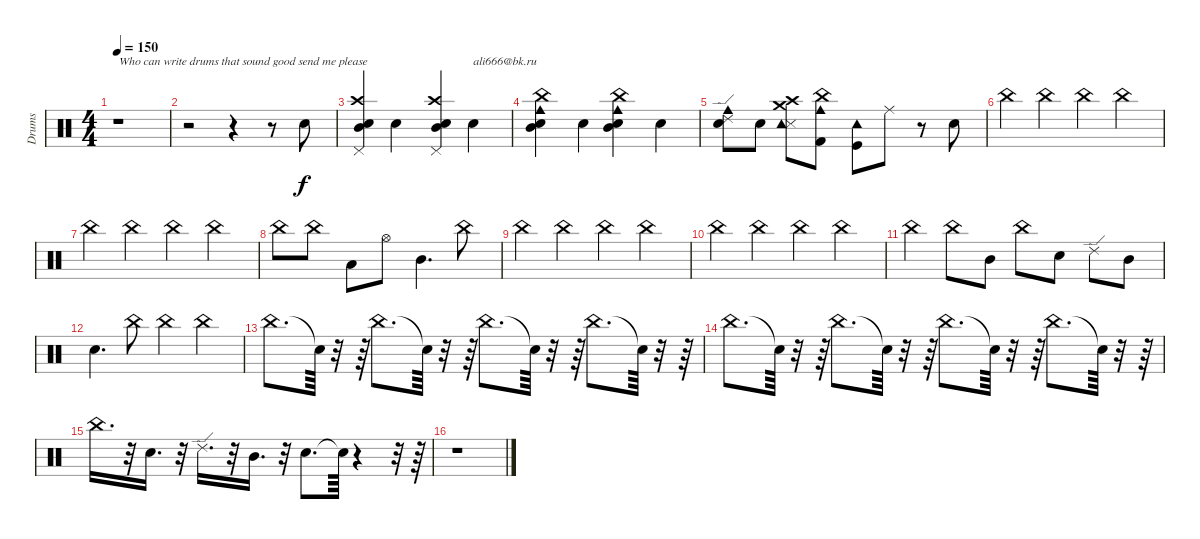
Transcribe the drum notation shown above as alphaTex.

\track ("Drums" "Drums") {instrument percussion}
\staff {score}
\articulation defaults
\ts (4 4)
\tempo 150
\tempo 100
\tempo 150
\clef neutral
\ks c
r.1{txt "Who can write drums that sound good send me please" dy f} |
r.2 r.4 r.8 "Electric Snare (hit)".8 |
("Electric Snare (hit)" "Crash high (hit)" "Mid Tom (hit)" "Pedal Hi-Hat (hit)").4 "Electric Snare (hit)".4 ("Electric Snare (hit)" "Crash high (hit)" "Mid Tom (hit)" "Pedal Hi-Hat (hit)").4 "Electric Snare (hit)".4{txt "ali666@bk.ru"} |
("Electric Snare (hit)" "Cowbell medium (hit)" "China (hit)" "Mid Tom (hit)").4 "Electric Snare (hit)".4 ("Electric Snare (hit)" "Cowbell medium (hit)" "China (hit)" "Mid Tom (hit)").4 "Electric Snare (hit)".4 |
("Electric Snare (hit)" "Cowbell medium (hit)" "Ride (edge) 2").8 "Electric Snare (hit)".8 ("Metronome (hit)" "Crash high (hit)" "Tambourine (hit)" "Crash medium (hit)").8 ("Kick (hit) 2" "China (hit)" "Cowbell medium (hit)").8 ("Kick (hit)" "Tambourine (hit)").8 "Ride (middle)".8 r.8 "Electric Snare (hit)".8 |
"China (hit)".4 "China (hit)".4 "China (hit)".4 "China (hit)".4 |
"China (hit)".4 "China (hit)".4 "China (hit)".4 "China (hit)".4 |
"China (hit)".8 "China (hit)".8 "Low Tom (hit)".8 "Hi-Hat (open)".8 "Mid Tom (hit)".4{d} "China (hit)".8 |
"China (hit)".4 "China (hit)".4 "China (hit)".4 "China (hit)".4 |
"China (hit)".4 "China (hit)".4 "China (hit)".4 "China (hit)".4 |
"China (hit)".4 "China (hit)".8 "Mid Tom (hit)".8 "China (hit)".8 "Electric Snare (hit)".8 "Ride (edge) 2".8 "Mid Tom (hit)".8 |
"Electric Snare (hit)".4{d} "China (hit)".8 "China (hit)".4 "China (hit)".4 |
"China (hit)".8{d} "Snare (hit)"{t}.64 r.32 r.64 "China (hit)".8{d} "Snare (hit)"{t}.64 r.32 r.64 "China (hit)".8{d} "Snare (hit)"{t}.64 r.32 r.64 "China (hit)".8{d} "Snare (hit)"{t}.64 r.32 r.64 |
"China (hit)".8{d} "Snare (hit)"{t}.64 r.32 r.64 "China (hit)".8{d} "Snare (hit)"{t}.64 r.32 r.64 "China (hit)".8{d} "Snare (hit)"{t}.64 r.32 r.64 "China (hit)".8{d} "Snare (hit)"{t}.64 r.32 r.64 |
"China (hit)".16{d} r.32 "Electric Snare (hit)".16{d} r.32 "Ride (edge) 2".16{d} r.32 "Mid Tom (hit)".16{d} r.32 "Electric Snare (hit)".8{d} "Snare (hit)"{t}.64 r.4 r.32 r.64 |
r.1
